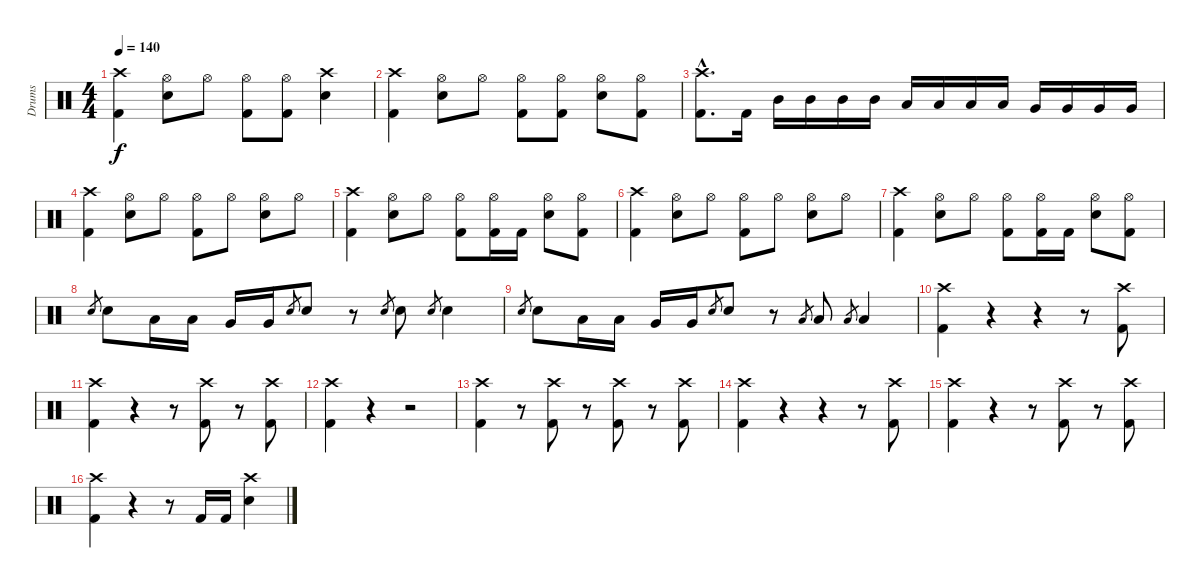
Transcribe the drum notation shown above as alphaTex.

\track ("Drums" "Drums") {instrument percussion}
\staff {score}
\articulation defaults
\ts (4 4)
\tempo 140
\clef neutral
\ks c
("Crash high (hit)" "Kick (hit) 2").4{dy f} ("Hi-Hat (open)" "Electric Snare (hit)").8 "Hi-Hat (open)".8 ("Hi-Hat (open)" "Kick (hit) 2").8 ("Hi-Hat (open)" "Kick (hit) 2").8 ("Crash high (hit)" "Electric Snare (hit)").4 |
("Crash high (hit)" "Kick (hit) 2").4 ("Hi-Hat (open)" "Electric Snare (hit)").8 "Hi-Hat (open)".8 ("Hi-Hat (open)" "Kick (hit) 2").8 ("Hi-Hat (open)" "Kick (hit) 2").8 ("Hi-Hat (open)" "Electric Snare (hit)").8 ("Hi-Hat (open)" "Kick (hit) 2").8 |
("Crash high (hit)"{hac} "Kick (hit) 2"{hac}).8{d} "Kick (hit) 2".16 "Mid Tom (hit)".16 "Mid Tom (hit)".16 "Mid Tom (hit)".16 "Mid Tom (hit)".16 "Low Tom (hit)".16 "Low Tom (hit)".16 "Low Tom (hit)".16 "Low Tom (hit)".16 "Very Low Tom (hit)".16 "Very Low Tom (hit)".16 "Very Low Tom (hit)".16 "Very Low Tom (hit)".16 |
("Crash high (hit)" "Kick (hit) 2").4 ("Hi-Hat (open)" "Electric Snare (hit)").8 "Hi-Hat (open)".8 ("Hi-Hat (open)" "Kick (hit) 2").8 "Hi-Hat (open)".8 ("Hi-Hat (open)" "Electric Snare (hit)").8 "Hi-Hat (open)".8 |
("Crash high (hit)" "Kick (hit) 2").4 ("Hi-Hat (open)" "Electric Snare (hit)").8 "Hi-Hat (open)".8 ("Hi-Hat (open)" "Kick (hit) 2").8 ("Hi-Hat (open)" "Kick (hit) 2").16 "Kick (hit) 2".16 ("Hi-Hat (open)" "Electric Snare (hit)").8 ("Hi-Hat (open)" "Kick (hit) 2").8 |
("Crash high (hit)" "Kick (hit) 2").4 ("Hi-Hat (open)" "Electric Snare (hit)").8 "Hi-Hat (open)".8 ("Hi-Hat (open)" "Kick (hit) 2").8 "Hi-Hat (open)".8 ("Hi-Hat (open)" "Electric Snare (hit)").8 "Hi-Hat (open)".8 |
("Crash high (hit)" "Kick (hit) 2").4 ("Hi-Hat (open)" "Electric Snare (hit)").8 "Hi-Hat (open)".8 ("Hi-Hat (open)" "Kick (hit) 2").8 ("Hi-Hat (open)" "Kick (hit) 2").16 "Kick (hit) 2".16 ("Hi-Hat (open)" "Electric Snare (hit)").8 ("Hi-Hat (open)" "Kick (hit) 2").8 |
"Electric Snare (hit)".8{gr} "Electric Snare (hit)".8 "Low Tom (hit)".16 "Low Tom (hit)".16 "Very Low Tom (hit)".16 "Very Low Tom (hit)".16 "Electric Snare (hit)".8{gr} "Electric Snare (hit)".8 r.8 "Electric Snare (hit)".8{gr} "Electric Snare (hit)".8 "Electric Snare (hit)".8{gr} "Electric Snare (hit)".4 |
"Electric Snare (hit)".8{gr} "Electric Snare (hit)".8 "Low Tom (hit)".16 "Low Tom (hit)".16 "Very Low Tom (hit)".16 "Very Low Tom (hit)".16 "Electric Snare (hit)".8{gr} "Electric Snare (hit)".8 r.8 "Low Tom (hit)".8{gr} "Low Tom (hit)".8 "Low Tom (hit)".8{gr} "Low Tom (hit)".4 |
("Crash high (hit)" "Kick (hit) 2").4 r.4 r.4 r.8 ("Crash high (hit)" "Kick (hit) 2").8 |
("Crash high (hit)" "Kick (hit) 2").4 r.4 r.8 ("Crash high (hit)" "Kick (hit) 2").8 r.8 ("Crash high (hit)" "Kick (hit) 2").8 |
("Crash high (hit)" "Kick (hit) 2").4 r.4 r.2 |
("Crash high (hit)" "Kick (hit) 2").4 r.8 ("Crash high (hit)" "Kick (hit) 2").8 r.8 ("Crash high (hit)" "Kick (hit) 2").8 r.8 ("Crash high (hit)" "Kick (hit) 2").8 |
("Crash high (hit)" "Kick (hit) 2").4 r.4 r.4 r.8 ("Crash high (hit)" "Kick (hit) 2").8 |
("Crash high (hit)" "Kick (hit) 2").4 r.4 r.8 ("Crash high (hit)" "Kick (hit) 2").8 r.8 ("Crash high (hit)" "Kick (hit) 2").8 |
("Crash high (hit)" "Kick (hit) 2").4 r.4 r.8 "Kick (hit) 2".16 "Kick (hit) 2".16 ("Crash high (hit)" "Electric Snare (hit)").4
